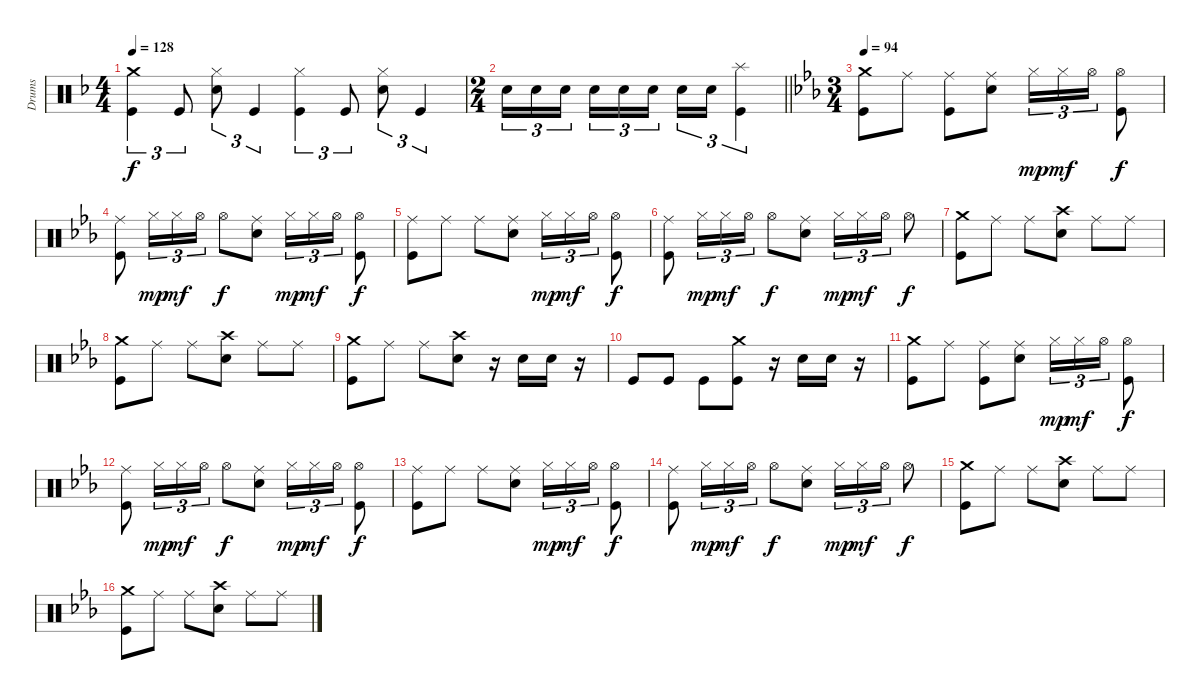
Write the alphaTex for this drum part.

\track ("Drums" "Drums") {instrument percussion}
\staff {score}
\articulation defaults
\ts (4 4)
\tempo 128
\clef neutral
\ks dminor
("Crash medium (hit)" "Kick (hit)").4{tu (3 2) dy f} "Kick (hit)".8{tu (3 2)} ("Hi-Hat (closed)" "Snare (hit) 2").8{tu (3 2)} "Kick (hit)".4{tu (3 2)} ("Hi-Hat (closed)" "Kick (hit)").4{tu (3 2)} "Kick (hit)".8{tu (3 2)} ("Hi-Hat (closed)" "Snare (hit) 2").8{tu (3 2)} "Kick (hit)".4{tu (3 2)} |
\ts (2 4)
\barLineRight lightlight "Snare (hit) 2".16{tu (3 2)} "Snare (hit) 2".16{tu (3 2)} "Snare (hit) 2".16{tu (3 2) beam splitsecondary} "Snare (hit) 2".16{tu (3 2)} "Snare (hit) 2".16{tu (3 2)} "Snare (hit) 2".16{tu (3 2)} "Snare (hit) 2".16{tu (3 2)} "Snare (hit) 2".16{tu (3 2)}
("Splash (hit)" "Kick (hit)").4{tu (3 2)} |
\ts (3 4)
\section ("" "")
\tempo 94
\ks cminor
("Crash medium (hit)" "Kick (hit)").8 "Ride (middle)".8 ("Ride (middle)" "Kick (hit)").8 ("Ride (middle)" "Snare (hit) 2").8 "Hi-Hat (closed)".16{tu (3 2) dy mp} "Hi-Hat (closed)".16{tu (3 2) dy mf} "Hi-Hat (open)".16{tu (3 2)} ("Hi-Hat (open)" "Kick (hit)").8{dy f} |
("Ride (middle)" "Kick (hit)").8 "Hi-Hat (closed)".16{tu (3 2) dy mp} "Hi-Hat (closed)".16{tu (3 2) dy mf} "Hi-Hat (open)".16{tu (3 2)} "Hi-Hat (open)".8{dy f} ("Ride (middle)" "Snare (hit) 2").8 "Hi-Hat (closed)".16{tu (3 2) dy mp} "Hi-Hat (closed)".16{tu (3 2) dy mf} "Hi-Hat (open)".16{tu (3 2)} ("Hi-Hat (open)" "Kick (hit)").8{dy f} |
("Ride (middle)" "Kick (hit)").8 "Ride (middle)".8 "Ride (middle)".8 ("Ride (middle)" "Snare (hit) 2").8 "Hi-Hat (closed)".16{tu (3 2) dy mp} "Hi-Hat (closed)".16{tu (3 2) dy mf} "Hi-Hat (open)".16{tu (3 2)} ("Hi-Hat (open)" "Kick (hit)").8{dy f} |
("Ride (middle)" "Kick (hit)").8 "Hi-Hat (closed)".16{tu (3 2) dy mp} "Hi-Hat (closed)".16{tu (3 2) dy mf} "Hi-Hat (open)".16{tu (3 2)} "Hi-Hat (open)".8{dy f} ("Ride (middle)" "Snare (hit) 2").8 "Hi-Hat (closed)".16{tu (3 2) dy mp} "Hi-Hat (closed)".16{tu (3 2) dy mf} "Hi-Hat (open)".16{tu (3 2)} "Hi-Hat (open)".8{dy f} |
("Crash medium (hit)" "Kick (hit)").8 "Ride (middle)".8 "Ride (middle)".8 ("Crash high (hit)" "Snare (hit) 2").8 "Ride (middle)".8 "Ride (middle)".8 |
("Crash medium (hit)" "Kick (hit)").8 "Ride (middle)".8 "Ride (middle)".8 ("Crash high (hit)" "Snare (hit) 2").8 "Ride (middle)".8 "Ride (middle)".8 |
("Crash medium (hit)" "Kick (hit)").8 "Ride (middle)".8 "Ride (middle)".8 ("Crash high (hit)" "Snare (hit) 2").8 r.16 "Snare (hit) 2".16 "Snare (hit) 2".16 r.16 |
"Kick (hit)".8 "Kick (hit)".8 "Kick (hit)".8 ("Crash medium (hit)" "Kick (hit)").8 r.16 "Snare (hit) 2".16 "Snare (hit) 2".16 r.16 |
("Crash medium (hit)" "Kick (hit)").8 "Ride (middle)".8 ("Ride (middle)" "Kick (hit)").8 ("Ride (middle)" "Snare (hit) 2").8 "Hi-Hat (closed)".16{tu (3 2) dy mp} "Hi-Hat (closed)".16{tu (3 2) dy mf} "Hi-Hat (open)".16{tu (3 2)} ("Hi-Hat (open)" "Kick (hit)").8{dy f} |
("Ride (middle)" "Kick (hit)").8 "Hi-Hat (closed)".16{tu (3 2) dy mp} "Hi-Hat (closed)".16{tu (3 2) dy mf} "Hi-Hat (open)".16{tu (3 2)} "Hi-Hat (open)".8{dy f} ("Ride (middle)" "Snare (hit) 2").8 "Hi-Hat (closed)".16{tu (3 2) dy mp} "Hi-Hat (closed)".16{tu (3 2) dy mf} "Hi-Hat (open)".16{tu (3 2)} ("Hi-Hat (open)" "Kick (hit)").8{dy f} |
("Ride (middle)" "Kick (hit)").8 "Ride (middle)".8 "Ride (middle)".8 ("Ride (middle)" "Snare (hit) 2").8 "Hi-Hat (closed)".16{tu (3 2) dy mp} "Hi-Hat (closed)".16{tu (3 2) dy mf} "Hi-Hat (open)".16{tu (3 2)} ("Hi-Hat (open)" "Kick (hit)").8{dy f} |
("Ride (middle)" "Kick (hit)").8 "Hi-Hat (closed)".16{tu (3 2) dy mp} "Hi-Hat (closed)".16{tu (3 2) dy mf} "Hi-Hat (open)".16{tu (3 2)} "Hi-Hat (open)".8{dy f} ("Ride (middle)" "Snare (hit) 2").8 "Hi-Hat (closed)".16{tu (3 2) dy mp} "Hi-Hat (closed)".16{tu (3 2) dy mf} "Hi-Hat (open)".16{tu (3 2)} "Hi-Hat (open)".8{dy f} |
("Crash medium (hit)" "Kick (hit)").8 "Ride (middle)".8 "Ride (middle)".8 ("Crash high (hit)" "Snare (hit) 2").8 "Ride (middle)".8 "Ride (middle)".8 |
("Crash medium (hit)" "Kick (hit)").8 "Ride (middle)".8 "Ride (middle)".8 ("Crash high (hit)" "Snare (hit) 2").8 "Ride (middle)".8 "Ride (middle)".8
